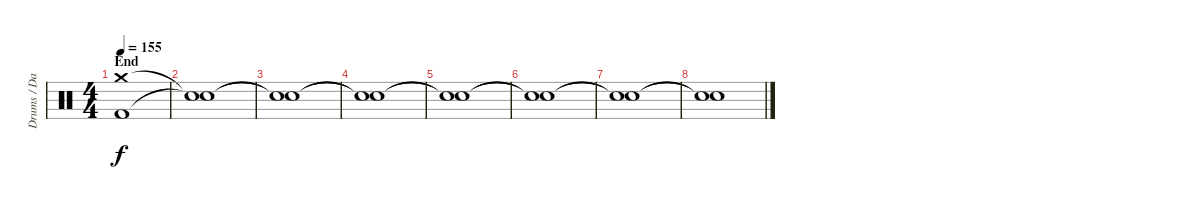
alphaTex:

\track ("Drums / David" "Drums / Da") {instrument percussion}
\staff {score}
\articulation defaults
\ts (4 4)
\section ("" "End")
\tempo 155
\clef neutral
\ks c
("Crash medium (hit)" "Kick (hit) 2").1{dy f} |
("Snare (hit)"{t} "Snare (hit)"{t}).1 |
("Snare (hit)"{t} "Snare (hit)"{t}).1 |
("Snare (hit)"{t} "Snare (hit)"{t}).1 |
("Snare (hit)"{t} "Snare (hit)"{t}).1 |
("Snare (hit)"{t} "Snare (hit)"{t}).1 |
("Snare (hit)"{t} "Snare (hit)"{t}).1 |
("Snare (hit)"{t} "Snare (hit)"{t}).1
